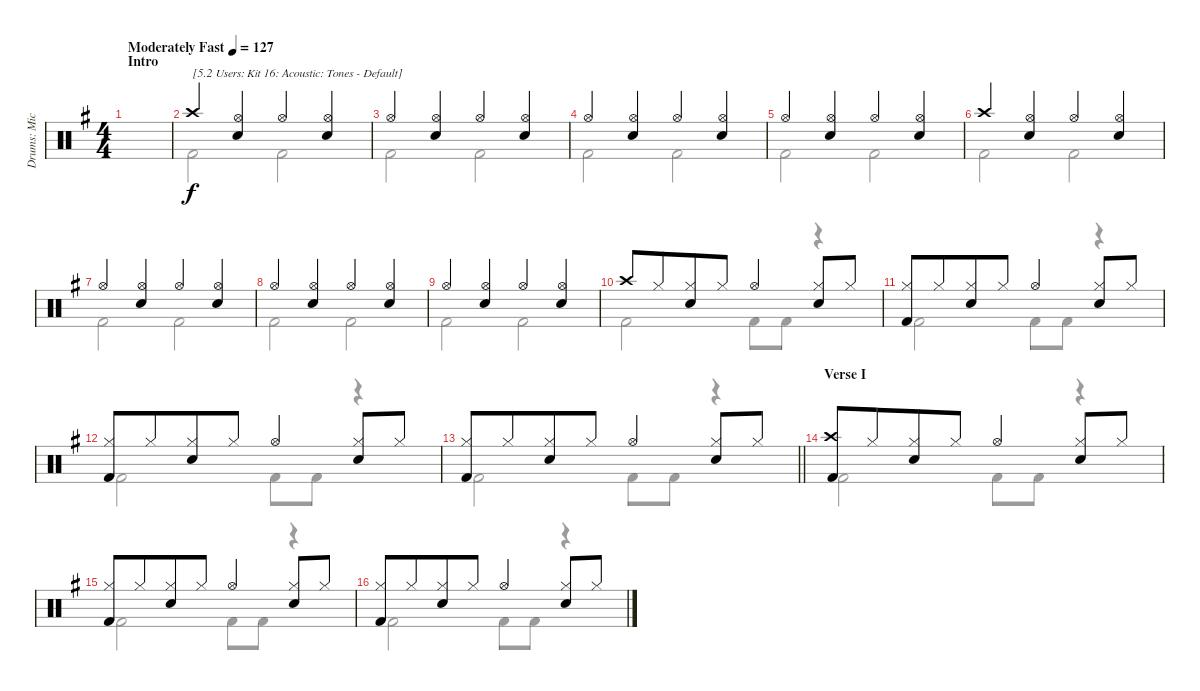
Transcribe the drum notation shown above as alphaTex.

\track ("Drums: Mick" "Drums: Mic") {instrument percussion}
\staff {score}
\articulation defaults
\voice
\ts (4 4)
\section ("" "Intro")
\tempo (127 "Moderately Fast")
\clef neutral
\ks g
|
"Crash high (hit)".4{txt "[5.2 Users: Kit 16: Acoustic: Tones - Default]"} ("Hi-Hat (open)" "Snare (hit) 2").4 "Hi-Hat (open)".4 ("Hi-Hat (open)" "Snare (hit) 2").4 |
"Hi-Hat (open)".4 ("Hi-Hat (open)" "Snare (hit) 2").4 "Hi-Hat (open)".4 ("Hi-Hat (open)" "Snare (hit) 2").4 |
"Hi-Hat (open)".4 ("Hi-Hat (open)" "Snare (hit) 2").4 "Hi-Hat (open)".4 ("Hi-Hat (open)" "Snare (hit) 2").4 |
"Hi-Hat (open)".4 ("Hi-Hat (open)" "Snare (hit) 2").4 "Hi-Hat (open)".4 ("Hi-Hat (open)" "Snare (hit) 2").4 |
"Crash high (hit)".4 ("Hi-Hat (open)" "Snare (hit) 2").4 "Hi-Hat (open)".4 ("Hi-Hat (open)" "Snare (hit) 2").4 |
"Hi-Hat (open)".4 ("Hi-Hat (open)" "Snare (hit) 2").4 "Hi-Hat (open)".4 ("Hi-Hat (open)" "Snare (hit) 2").4 |
"Hi-Hat (open)".4 ("Hi-Hat (open)" "Snare (hit) 2").4 "Hi-Hat (open)".4 ("Hi-Hat (open)" "Snare (hit) 2").4 |
"Hi-Hat (open)".4 ("Hi-Hat (open)" "Snare (hit) 2").4 "Hi-Hat (open)".4 ("Hi-Hat (open)" "Snare (hit) 2").4 |
"Crash high (hit)".8 "Hi-Hat (closed)".8{beam merge} ("Hi-Hat (closed)" "Snare (hit) 2").8 "Hi-Hat (closed)".8 "Hi-Hat (open)".4{beam merge} ("Hi-Hat (closed)" "Snare (hit) 2").8 "Hi-Hat (closed)".8 |
("Hi-Hat (closed)" "Kick (hit) 2").8 "Hi-Hat (closed)".8{beam merge} ("Hi-Hat (closed)" "Snare (hit) 2").8 "Hi-Hat (closed)".8 "Hi-Hat (open)".4{beam merge} ("Hi-Hat (closed)" "Snare (hit) 2").8 "Hi-Hat (closed)".8 |
("Hi-Hat (closed)" "Kick (hit) 2").8 "Hi-Hat (closed)".8{beam merge} ("Hi-Hat (closed)" "Snare (hit) 2").8 "Hi-Hat (closed)".8 "Hi-Hat (open)".4{beam merge} ("Hi-Hat (closed)" "Snare (hit) 2").8 "Hi-Hat (closed)".8 |
\barLineRight lightlight
("Hi-Hat (closed)" "Kick (hit) 2").8 "Hi-Hat (closed)".8{beam merge} ("Hi-Hat (closed)" "Snare (hit) 2").8 "Hi-Hat (closed)".8 "Hi-Hat (open)".4{beam merge} ("Hi-Hat (closed)" "Snare (hit) 2").8 "Hi-Hat (closed)".8 |
\section ("" "Verse I")
("Crash high (hit)" "Kick (hit) 2").8 "Hi-Hat (closed)".8{beam merge} ("Hi-Hat (closed)" "Snare (hit) 2").8 "Hi-Hat (closed)".8 "Hi-Hat (open)".4{beam merge} ("Hi-Hat (closed)" "Snare (hit) 2").8 "Hi-Hat (closed)".8 |
("Hi-Hat (closed)" "Kick (hit) 2").8 "Hi-Hat (closed)".8{beam merge} ("Hi-Hat (closed)" "Snare (hit) 2").8 "Hi-Hat (closed)".8 "Hi-Hat (open)".4{beam merge} ("Hi-Hat (closed)" "Snare (hit) 2").8 "Hi-Hat (closed)".8 |
("Hi-Hat (closed)" "Kick (hit) 2").8 "Hi-Hat (closed)".8{beam merge} ("Hi-Hat (closed)" "Snare (hit) 2").8 "Hi-Hat (closed)".8 "Hi-Hat (open)".4{beam merge} ("Hi-Hat (closed)" "Snare (hit) 2").8 "Hi-Hat (closed)".8
\voice
\clef neutral
\ottava regular
\simile none
\ks g
|
"Kick (hit) 2".2 "Kick (hit) 2".2 |
"Kick (hit) 2".2 "Kick (hit) 2".2 |
"Kick (hit) 2".2 "Kick (hit) 2".2 |
"Kick (hit) 2".2 "Kick (hit) 2".2 |
"Kick (hit) 2".2 "Kick (hit) 2".2 |
"Kick (hit) 2".2 "Kick (hit) 2".2 |
"Kick (hit) 2".2 "Kick (hit) 2".2 |
"Kick (hit) 2".2 "Kick (hit) 2".2 |
"Kick (hit) 2".2 "Kick (hit) 2".8 "Kick (hit) 2".8 r.4 |
"Kick (hit) 2".2 "Kick (hit) 2".8 "Kick (hit) 2".8 r.4 |
"Kick (hit) 2".2 "Kick (hit) 2".8 "Kick (hit) 2".8 r.4 |
\barLineRight lightlight "Kick (hit) 2".2 "Kick (hit) 2".8 "Kick (hit) 2".8
r.4 |
"Kick (hit) 2".2 "Kick (hit) 2".8 "Kick (hit) 2".8 r.4 |
"Kick (hit) 2".2 "Kick (hit) 2".8 "Kick (hit) 2".8 r.4 |
"Kick (hit) 2".2 "Kick (hit) 2".8 "Kick (hit) 2".8 r.4
